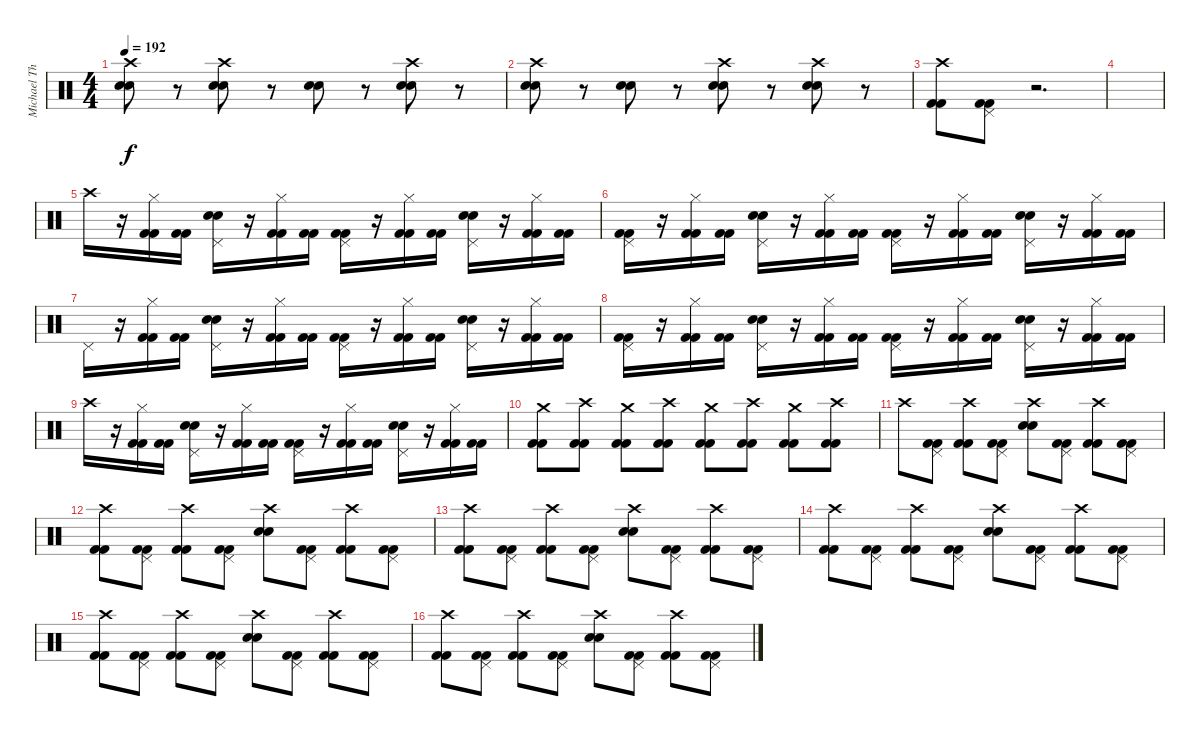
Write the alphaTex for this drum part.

\track ("Michael Thomas" "Michael Th") {instrument percussion}
\staff {score}
\articulation defaults
\ts (4 4)
\tempo 192
\clef neutral
\ks c
("Crash high (hit)" "Snare (hit) 2" "Electric Snare (hit)").8{dy f} r.8 ("Crash high (hit)" "Snare (hit) 2" "Electric Snare (hit)").8 r.8 ("Snare (hit) 2" "Electric Snare (hit)").8 r.8 ("Crash high (hit)" "Snare (hit) 2" "Electric Snare (hit)").8 r.8 |
("Crash high (hit)" "Snare (hit) 2" "Electric Snare (hit)").8 r.8 ("Snare (hit) 2" "Electric Snare (hit)").8 r.8 ("Crash high (hit)" "Snare (hit) 2" "Electric Snare (hit)").8 r.8 ("Crash high (hit)" "Snare (hit) 2" "Electric Snare (hit)").8 r.8 |
("Crash high (hit)" "Kick (hit) 2" "Kick (hit) 2").8 ("Pedal Hi-Hat (hit)" "Kick (hit) 2" "Kick (hit) 2").8 r.2{d} |
|
"Crash high (hit)".16 r.16 ("Hi-Hat (closed)" "Kick (hit) 2" "Kick (hit) 2").16 ("Kick (hit) 2" "Kick (hit) 2").16 ("Pedal Hi-Hat (hit)" "Snare (hit) 2" "Electric Snare (hit)").16 r.16 ("Hi-Hat (closed)" "Kick (hit) 2" "Kick (hit) 2").16 ("Kick (hit) 2" "Kick (hit) 2").16 ("Pedal Hi-Hat (hit)" "Kick (hit) 2" "Kick (hit) 2").16 r.16 ("Hi-Hat (closed)" "Kick (hit) 2" "Kick (hit) 2").16 ("Kick (hit) 2" "Kick (hit) 2").16 ("Pedal Hi-Hat (hit)" "Snare (hit) 2" "Electric Snare (hit)").16 r.16 ("Hi-Hat (closed)" "Kick (hit) 2" "Kick (hit) 2").16 ("Kick (hit) 2" "Kick (hit) 2").16 |
("Pedal Hi-Hat (hit)" "Kick (hit) 2" "Kick (hit) 2").16 r.16 ("Hi-Hat (closed)" "Kick (hit) 2" "Kick (hit) 2").16 ("Kick (hit) 2" "Kick (hit) 2").16 ("Pedal Hi-Hat (hit)" "Snare (hit) 2" "Electric Snare (hit)").16 r.16 ("Hi-Hat (closed)" "Kick (hit) 2" "Kick (hit) 2").16 ("Kick (hit) 2" "Kick (hit) 2").16 ("Pedal Hi-Hat (hit)" "Kick (hit) 2" "Kick (hit) 2").16 r.16 ("Hi-Hat (closed)" "Kick (hit) 2" "Kick (hit) 2").16 ("Kick (hit) 2" "Kick (hit) 2").16 ("Pedal Hi-Hat (hit)" "Snare (hit) 2" "Electric Snare (hit)").16 r.16 ("Hi-Hat (closed)" "Kick (hit) 2" "Kick (hit) 2").16 ("Kick (hit) 2" "Kick (hit) 2").16 |
"Pedal Hi-Hat (hit)".16 r.16 ("Hi-Hat (closed)" "Kick (hit) 2" "Kick (hit) 2").16 ("Kick (hit) 2" "Kick (hit) 2").16 ("Pedal Hi-Hat (hit)" "Snare (hit) 2" "Electric Snare (hit)").16 r.16 ("Hi-Hat (closed)" "Kick (hit) 2" "Kick (hit) 2").16 ("Kick (hit) 2" "Kick (hit) 2").16 ("Pedal Hi-Hat (hit)" "Kick (hit) 2" "Kick (hit) 2").16 r.16 ("Hi-Hat (closed)" "Kick (hit) 2" "Kick (hit) 2").16 ("Kick (hit) 2" "Kick (hit) 2").16 ("Pedal Hi-Hat (hit)" "Snare (hit) 2" "Electric Snare (hit)").16 r.16 ("Hi-Hat (closed)" "Kick (hit) 2" "Kick (hit) 2").16 ("Kick (hit) 2" "Kick (hit) 2").16 |
("Pedal Hi-Hat (hit)" "Kick (hit) 2" "Kick (hit) 2").16 r.16 ("Hi-Hat (closed)" "Kick (hit) 2" "Kick (hit) 2").16 ("Kick (hit) 2" "Kick (hit) 2").16 ("Pedal Hi-Hat (hit)" "Snare (hit) 2" "Electric Snare (hit)").16 r.16 ("Hi-Hat (closed)" "Kick (hit) 2" "Kick (hit) 2").16 ("Kick (hit) 2" "Kick (hit) 2").16 ("Pedal Hi-Hat (hit)" "Kick (hit) 2" "Kick (hit) 2").16 r.16 ("Hi-Hat (closed)" "Kick (hit) 2" "Kick (hit) 2").16 ("Kick (hit) 2" "Kick (hit) 2").16 ("Pedal Hi-Hat (hit)" "Snare (hit) 2" "Electric Snare (hit)").16 r.16 ("Hi-Hat (closed)" "Kick (hit) 2" "Kick (hit) 2").16 ("Kick (hit) 2" "Kick (hit) 2").16 |
"Crash high (hit)".16 r.16 ("Hi-Hat (closed)" "Kick (hit) 2" "Kick (hit) 2").16 ("Kick (hit) 2" "Kick (hit) 2").16 ("Pedal Hi-Hat (hit)" "Snare (hit) 2" "Electric Snare (hit)").16 r.16 ("Hi-Hat (closed)" "Kick (hit) 2" "Kick (hit) 2").16 ("Kick (hit) 2" "Kick (hit) 2").16 ("Pedal Hi-Hat (hit)" "Kick (hit) 2" "Kick (hit) 2").16 r.16 ("Hi-Hat (closed)" "Kick (hit) 2" "Kick (hit) 2").16 ("Kick (hit) 2" "Kick (hit) 2").16 ("Pedal Hi-Hat (hit)" "Snare (hit) 2" "Electric Snare (hit)").16 r.16 ("Hi-Hat (closed)" "Kick (hit) 2" "Kick (hit) 2").16 ("Kick (hit) 2" "Kick (hit) 2").16 |
("Crash medium (hit)" "Kick (hit) 2" "Kick (hit) 2").8 ("Crash high (hit)" "Kick (hit) 2" "Kick (hit) 2").8 ("Crash medium (hit)" "Kick (hit) 2" "Kick (hit) 2").8 ("Crash high (hit)" "Kick (hit) 2" "Kick (hit) 2").8 ("Crash medium (hit)" "Kick (hit) 2" "Kick (hit) 2").8 ("Crash high (hit)" "Kick (hit) 2" "Kick (hit) 2").8 ("Crash medium (hit)" "Kick (hit) 2" "Kick (hit) 2").8 ("Crash high (hit)" "Kick (hit) 2" "Kick (hit) 2").8 |
"Crash high (hit)".8 ("Pedal Hi-Hat (hit)" "Kick (hit) 2" "Kick (hit) 2").8 ("Crash high (hit)" "Kick (hit) 2" "Kick (hit) 2").8 ("Pedal Hi-Hat (hit)" "Kick (hit) 2" "Kick (hit) 2").8 ("Crash high (hit)" "Snare (hit) 2" "Electric Snare (hit)").8 ("Pedal Hi-Hat (hit)" "Kick (hit) 2" "Kick (hit) 2").8 ("Crash high (hit)" "Kick (hit) 2" "Kick (hit) 2").8 ("Pedal Hi-Hat (hit)" "Kick (hit) 2" "Kick (hit) 2").8 |
("Crash high (hit)" "Kick (hit) 2" "Kick (hit) 2").8 ("Pedal Hi-Hat (hit)" "Kick (hit) 2" "Kick (hit) 2").8 ("Crash high (hit)" "Kick (hit) 2" "Kick (hit) 2").8 ("Pedal Hi-Hat (hit)" "Kick (hit) 2" "Kick (hit) 2").8 ("Crash high (hit)" "Snare (hit) 2" "Electric Snare (hit)").8 ("Pedal Hi-Hat (hit)" "Kick (hit) 2" "Kick (hit) 2").8 ("Crash high (hit)" "Kick (hit) 2" "Kick (hit) 2").8 ("Pedal Hi-Hat (hit)" "Kick (hit) 2" "Kick (hit) 2").8 |
("Crash high (hit)" "Kick (hit) 2" "Kick (hit) 2").8 ("Pedal Hi-Hat (hit)" "Kick (hit) 2" "Kick (hit) 2").8 ("Crash high (hit)" "Kick (hit) 2" "Kick (hit) 2").8 ("Pedal Hi-Hat (hit)" "Kick (hit) 2" "Kick (hit) 2").8 ("Crash high (hit)" "Snare (hit) 2" "Electric Snare (hit)").8 ("Pedal Hi-Hat (hit)" "Kick (hit) 2" "Kick (hit) 2").8 ("Crash high (hit)" "Kick (hit) 2" "Kick (hit) 2").8 ("Pedal Hi-Hat (hit)" "Kick (hit) 2" "Kick (hit) 2").8 |
("Crash high (hit)" "Kick (hit) 2" "Kick (hit) 2").8 ("Pedal Hi-Hat (hit)" "Kick (hit) 2" "Kick (hit) 2").8 ("Crash high (hit)" "Kick (hit) 2" "Kick (hit) 2").8 ("Pedal Hi-Hat (hit)" "Kick (hit) 2" "Kick (hit) 2").8 ("Crash high (hit)" "Snare (hit) 2" "Electric Snare (hit)").8 ("Pedal Hi-Hat (hit)" "Kick (hit) 2" "Kick (hit) 2").8 ("Crash high (hit)" "Kick (hit) 2" "Kick (hit) 2").8 ("Pedal Hi-Hat (hit)" "Kick (hit) 2" "Kick (hit) 2").8 |
("Crash high (hit)" "Kick (hit) 2" "Kick (hit) 2").8 ("Pedal Hi-Hat (hit)" "Kick (hit) 2" "Kick (hit) 2").8 ("Crash high (hit)" "Kick (hit) 2" "Kick (hit) 2").8 ("Pedal Hi-Hat (hit)" "Kick (hit) 2" "Kick (hit) 2").8 ("Crash high (hit)" "Snare (hit) 2" "Electric Snare (hit)").8 ("Pedal Hi-Hat (hit)" "Kick (hit) 2" "Kick (hit) 2").8 ("Crash high (hit)" "Kick (hit) 2" "Kick (hit) 2").8 ("Pedal Hi-Hat (hit)" "Kick (hit) 2" "Kick (hit) 2").8 |
("Crash high (hit)" "Kick (hit) 2" "Kick (hit) 2").8 ("Pedal Hi-Hat (hit)" "Kick (hit) 2" "Kick (hit) 2").8 ("Crash high (hit)" "Kick (hit) 2" "Kick (hit) 2").8 ("Pedal Hi-Hat (hit)" "Kick (hit) 2" "Kick (hit) 2").8 ("Crash high (hit)" "Snare (hit) 2" "Electric Snare (hit)").8 ("Pedal Hi-Hat (hit)" "Kick (hit) 2" "Kick (hit) 2").8 ("Crash high (hit)" "Kick (hit) 2" "Kick (hit) 2").8 ("Pedal Hi-Hat (hit)" "Kick (hit) 2" "Kick (hit) 2").8
